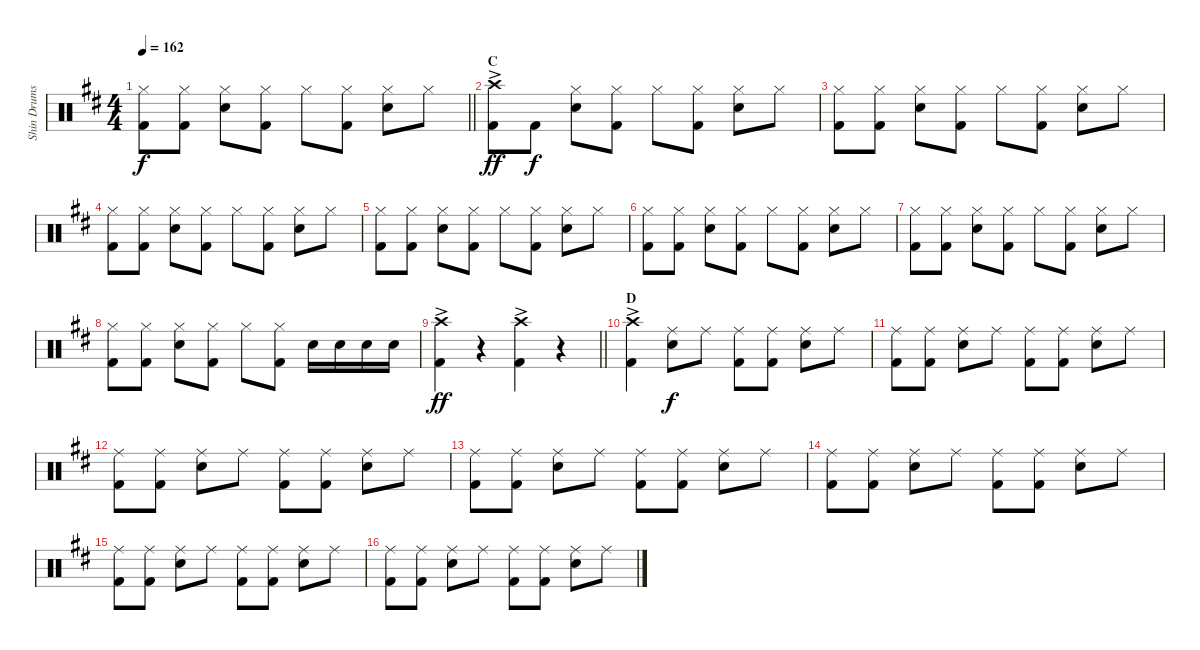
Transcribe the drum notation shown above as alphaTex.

\track ("Shin Drums" "Shin Drums") {instrument percussion}
\staff {score}
\articulation defaults
\ts (4 4)
\tempo 162
\clef neutral
\barLineRight lightlight
\ks d
("Hi-Hat (closed)" "Kick (hit) 2").8{dy f} ("Hi-Hat (closed)" "Kick (hit) 2").8 ("Hi-Hat (closed)" "Snare (hit) 2").8 ("Hi-Hat (closed)" "Kick (hit) 2").8 "Hi-Hat (closed)".8 ("Hi-Hat (closed)" "Kick (hit) 2").8 ("Hi-Hat (closed)" "Snare (hit) 2").8 "Hi-Hat (closed)".8 |
\section ("" "C")
("Crash high (hit)"{ac} "Kick (hit) 2").8{dy ff} "Kick (hit) 2".8{dy f} ("Hi-Hat (closed)" "Snare (hit) 2").8 ("Hi-Hat (closed)" "Kick (hit) 2").8 "Hi-Hat (closed)".8 ("Hi-Hat (closed)" "Kick (hit) 2").8 ("Hi-Hat (closed)" "Snare (hit) 2").8 "Hi-Hat (closed)".8 |
("Hi-Hat (closed)" "Kick (hit) 2").8 ("Hi-Hat (closed)" "Kick (hit) 2").8 ("Hi-Hat (closed)" "Snare (hit) 2").8 ("Hi-Hat (closed)" "Kick (hit) 2").8 "Hi-Hat (closed)".8 ("Hi-Hat (closed)" "Kick (hit) 2").8 ("Hi-Hat (closed)" "Snare (hit) 2").8 "Hi-Hat (closed)".8 |
("Hi-Hat (closed)" "Kick (hit) 2").8 ("Hi-Hat (closed)" "Kick (hit) 2").8 ("Hi-Hat (closed)" "Snare (hit) 2").8 ("Hi-Hat (closed)" "Kick (hit) 2").8 "Hi-Hat (closed)".8 ("Hi-Hat (closed)" "Kick (hit) 2").8 ("Hi-Hat (closed)" "Snare (hit) 2").8 "Hi-Hat (closed)".8 |
("Hi-Hat (closed)" "Kick (hit) 2").8 ("Hi-Hat (closed)" "Kick (hit) 2").8 ("Hi-Hat (closed)" "Snare (hit) 2").8 ("Hi-Hat (closed)" "Kick (hit) 2").8 "Hi-Hat (closed)".8 ("Hi-Hat (closed)" "Kick (hit) 2").8 ("Hi-Hat (closed)" "Snare (hit) 2").8 "Hi-Hat (closed)".8 |
("Hi-Hat (closed)" "Kick (hit) 2").8 ("Hi-Hat (closed)" "Kick (hit) 2").8 ("Hi-Hat (closed)" "Snare (hit) 2").8 ("Hi-Hat (closed)" "Kick (hit) 2").8 "Hi-Hat (closed)".8 ("Hi-Hat (closed)" "Kick (hit) 2").8 ("Hi-Hat (closed)" "Snare (hit) 2").8 "Hi-Hat (closed)".8 |
("Hi-Hat (closed)" "Kick (hit) 2").8 ("Hi-Hat (closed)" "Kick (hit) 2").8 ("Hi-Hat (closed)" "Snare (hit) 2").8 ("Hi-Hat (closed)" "Kick (hit) 2").8 "Hi-Hat (closed)".8 ("Hi-Hat (closed)" "Kick (hit) 2").8 ("Hi-Hat (closed)" "Snare (hit) 2").8 "Hi-Hat (closed)".8 |
("Hi-Hat (closed)" "Kick (hit) 2").8 ("Hi-Hat (closed)" "Kick (hit) 2").8 ("Hi-Hat (closed)" "Snare (hit) 2").8 ("Hi-Hat (closed)" "Kick (hit) 2").8 "Hi-Hat (closed)".8 ("Hi-Hat (closed)" "Kick (hit) 2").8 "Snare (hit) 2".16 "Snare (hit) 2".16 "Snare (hit) 2".16 "Snare (hit) 2".16 |
\barLineRight lightlight
("Crash high (hit)"{ac} "Kick (hit) 2").4{dy ff} r.4 ("Crash high (hit)"{ac} "Kick (hit) 2").4 r.4 |
\section ("" "D")
("Crash high (hit)"{ac} "Kick (hit) 2").4 ("Ride (middle)" "Snare (hit) 2").8{dy f} "Ride (middle)".8 ("Ride (middle)" "Kick (hit) 2").8 ("Ride (middle)" "Kick (hit) 2").8 ("Ride (middle)" "Snare (hit) 2").8 "Ride (middle)".8 |
("Ride (middle)" "Kick (hit) 2").8 ("Ride (middle)" "Kick (hit) 2").8 ("Ride (middle)" "Snare (hit) 2").8 "Ride (middle)".8 ("Ride (middle)" "Kick (hit) 2").8 ("Ride (middle)" "Kick (hit) 2").8 ("Ride (middle)" "Snare (hit) 2").8 "Ride (middle)".8 |
("Ride (middle)" "Kick (hit) 2").8 ("Ride (middle)" "Kick (hit) 2").8 ("Ride (middle)" "Snare (hit) 2").8 "Ride (middle)".8 ("Ride (middle)" "Kick (hit) 2").8 ("Ride (middle)" "Kick (hit) 2").8 ("Ride (middle)" "Snare (hit) 2").8 "Ride (middle)".8 |
("Ride (middle)" "Kick (hit) 2").8 ("Ride (middle)" "Kick (hit) 2").8 ("Ride (middle)" "Snare (hit) 2").8 "Ride (middle)".8 ("Ride (middle)" "Kick (hit) 2").8 ("Ride (middle)" "Kick (hit) 2").8 ("Ride (middle)" "Snare (hit) 2").8 "Ride (middle)".8 |
("Ride (middle)" "Kick (hit) 2").8 ("Ride (middle)" "Kick (hit) 2").8 ("Ride (middle)" "Snare (hit) 2").8 "Ride (middle)".8 ("Ride (middle)" "Kick (hit) 2").8 ("Ride (middle)" "Kick (hit) 2").8 ("Ride (middle)" "Snare (hit) 2").8 "Ride (middle)".8 |
("Ride (middle)" "Kick (hit) 2").8 ("Ride (middle)" "Kick (hit) 2").8 ("Ride (middle)" "Snare (hit) 2").8 "Ride (middle)".8 ("Ride (middle)" "Kick (hit) 2").8 ("Ride (middle)" "Kick (hit) 2").8 ("Ride (middle)" "Snare (hit) 2").8 "Ride (middle)".8 |
("Ride (middle)" "Kick (hit) 2").8 ("Ride (middle)" "Kick (hit) 2").8 ("Ride (middle)" "Snare (hit) 2").8 "Ride (middle)".8 ("Ride (middle)" "Kick (hit) 2").8 ("Ride (middle)" "Kick (hit) 2").8 ("Ride (middle)" "Snare (hit) 2").8 "Ride (middle)".8
